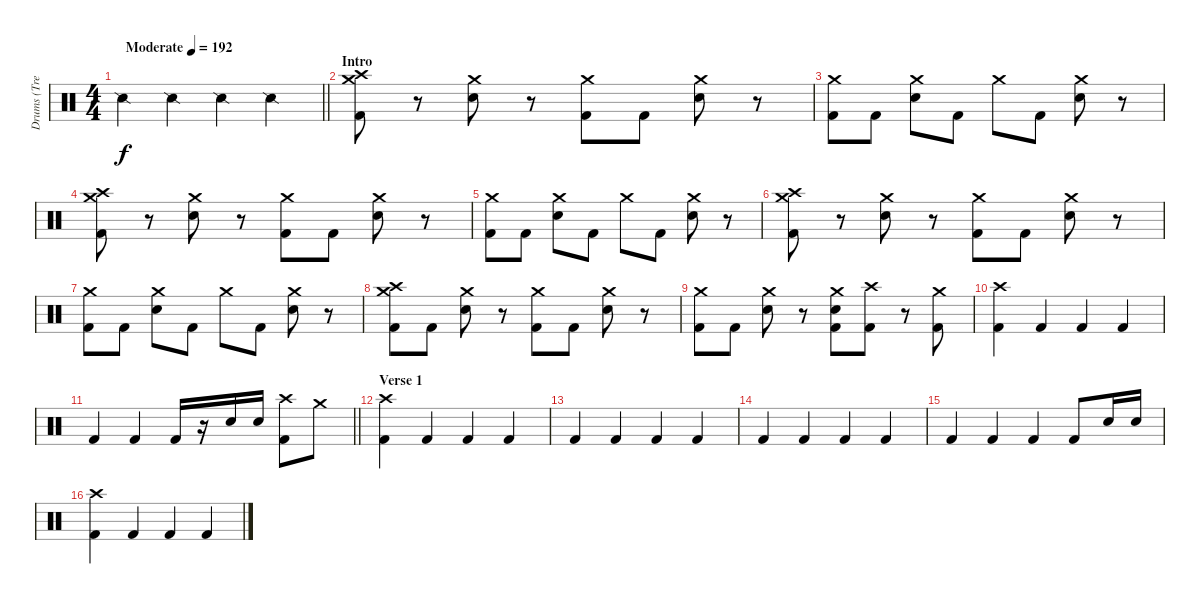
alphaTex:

\track ("Drums (Tre Cool)" "Drums (Tre") {instrument percussion}
\staff {score}
\articulation defaults
\ts (4 4)
\tempo (192 "Moderate")
\clef neutral
\barLineRight lightlight
\ks c "Snare (side stick) 2".4{dy f} "Snare (side stick) 2".4 "Snare (side stick) 2".4 "Snare (side stick) 2".4
|
\section ("" "Intro")
("Crash high (hit)" "Crash medium (hit)" "Kick (hit) 2").8 r.8 ("Crash medium (hit)" "Snare (hit) 2").8 r.8 ("Crash medium (hit)" "Kick (hit) 2").8 "Kick (hit) 2".8 ("Crash medium (hit)" "Snare (hit) 2").8 r.8 |
("Crash medium (hit)" "Kick (hit) 2").8 "Kick (hit) 2".8 ("Crash medium (hit)" "Snare (hit) 2").8 "Kick (hit) 2".8 "Crash medium (hit)".8 "Kick (hit) 2".8 ("Crash medium (hit)" "Snare (hit) 2").8 r.8 |
("Crash high (hit)" "Crash medium (hit)" "Kick (hit) 2").8 r.8 ("Crash medium (hit)" "Snare (hit) 2").8 r.8 ("Crash medium (hit)" "Kick (hit) 2").8 "Kick (hit) 2".8 ("Crash medium (hit)" "Snare (hit) 2").8 r.8 |
("Crash medium (hit)" "Kick (hit) 2").8 "Kick (hit) 2".8 ("Crash medium (hit)" "Snare (hit) 2").8 "Kick (hit) 2".8 "Crash medium (hit)".8 "Kick (hit) 2".8 ("Crash medium (hit)" "Snare (hit) 2").8 r.8 |
("Crash high (hit)" "Crash medium (hit)" "Kick (hit) 2").8 r.8 ("Crash medium (hit)" "Snare (hit) 2").8 r.8 ("Crash medium (hit)" "Kick (hit) 2").8 "Kick (hit) 2".8 ("Crash medium (hit)" "Snare (hit) 2").8 r.8 |
("Crash medium (hit)" "Kick (hit) 2").8 "Kick (hit) 2".8 ("Crash medium (hit)" "Snare (hit) 2").8 "Kick (hit) 2".8 "Crash medium (hit)".8 "Kick (hit) 2".8 ("Crash medium (hit)" "Snare (hit) 2").8 r.8 |
("Crash high (hit)" "Crash medium (hit)" "Kick (hit) 2").8 "Kick (hit) 2".8 ("Crash medium (hit)" "Snare (hit) 2").8 r.8 ("Crash medium (hit)" "Kick (hit) 2").8 "Kick (hit) 2".8 ("Crash medium (hit)" "Snare (hit) 2").8 r.8 |
("Crash medium (hit)" "Kick (hit) 2").8 "Kick (hit) 2".8 ("Crash medium (hit)" "Snare (hit) 2").8 r.8 ("Crash medium (hit)" "Snare (hit) 2" "Kick (hit) 2").8 ("Crash high (hit)" "Kick (hit) 2").8 r.8 ("Crash medium (hit)" "Kick (hit) 2").8 |
("Crash high (hit)" "Kick (hit) 2").4 "Kick (hit) 2".4 "Kick (hit) 2".4 "Kick (hit) 2".4 |
\barLineRight lightlight "Kick (hit) 2".4 "Kick (hit) 2".4 "Kick (hit) 2".16
r.16 "Snare (hit) 2".16 "Snare (hit) 2".16 ("Crash high (hit)" "Kick (hit) 2").8 "Crash medium (hit)".8 |
\section ("" "Verse 1")
("Crash high (hit)" "Kick (hit) 2").4 "Kick (hit) 2".4 "Kick (hit) 2".4 "Kick (hit) 2".4 |
"Kick (hit) 2".4 "Kick (hit) 2".4 "Kick (hit) 2".4 "Kick (hit) 2".4 |
"Kick (hit) 2".4 "Kick (hit) 2".4 "Kick (hit) 2".4 "Kick (hit) 2".4 |
"Kick (hit) 2".4 "Kick (hit) 2".4 "Kick (hit) 2".4 "Kick (hit) 2".8 "Snare (hit) 2".16 "Snare (hit) 2".16 |
("Crash high (hit)" "Kick (hit) 2").4 "Kick (hit) 2".4 "Kick (hit) 2".4 "Kick (hit) 2".4
